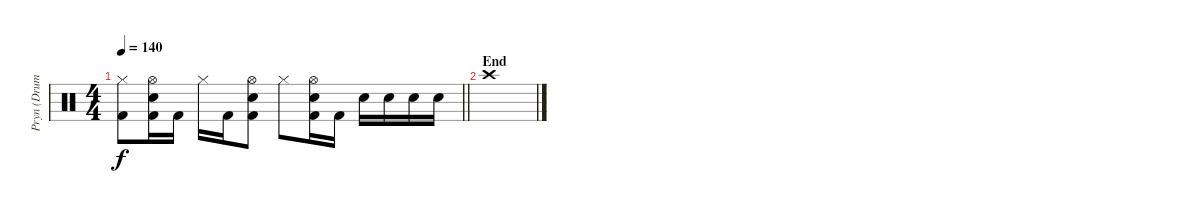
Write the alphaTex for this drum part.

\track ("Pryn (Drums)" "Pryn (Drum") {instrument percussion}
\staff {score}
\articulation defaults
\ts (4 4)
\tempo 140
\clef neutral
\barLineRight lightlight
\ks c
("Kick (hit) 2" "Hi-Hat (closed)").8{dy f} ("Snare (hit) 2" "Hi-Hat (open)" "Kick (hit) 2").16 "Kick (hit) 2".16 "Hi-Hat (closed)".16 "Kick (hit) 2".16 ("Snare (hit) 2" "Hi-Hat (open)" "Kick (hit) 2").8 "Hi-Hat (closed)".8 ("Snare (hit) 2" "Hi-Hat (open)" "Kick (hit) 2").16 "Kick (hit) 2".16 "Snare (hit) 2".16 "Snare (hit) 2".16 "Snare (hit) 2".16 "Snare (hit) 2".16 |
\section ("" "End")
"Crash high (hit)".1
